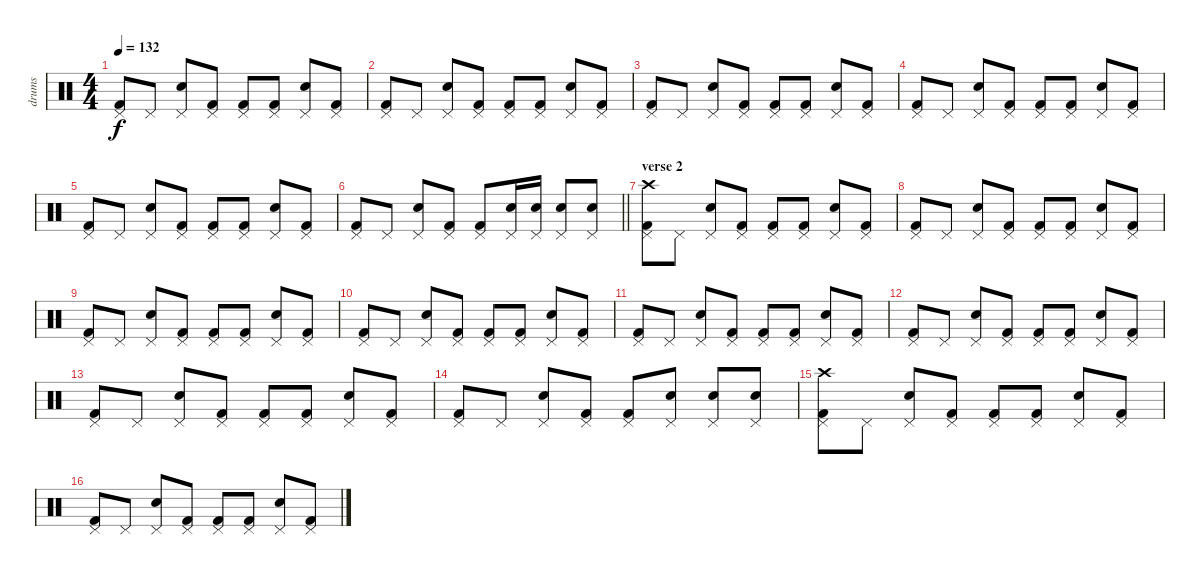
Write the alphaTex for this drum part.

\track ("drums" "drums") {instrument percussion}
\staff {score}
\articulation defaults
\ts (4 4)
\tempo 132
\clef neutral
\ks c
("Kick (hit) 2" "Pedal Hi-Hat (hit)").8{dy f} "Pedal Hi-Hat (hit)".8 ("Electric Snare (hit)" "Pedal Hi-Hat (hit)").8 ("Kick (hit) 2" "Pedal Hi-Hat (hit)").8 ("Kick (hit) 2" "Pedal Hi-Hat (hit)").8 ("Kick (hit) 2" "Pedal Hi-Hat (hit)").8 ("Electric Snare (hit)" "Pedal Hi-Hat (hit)").8 ("Kick (hit) 2" "Pedal Hi-Hat (hit)").8 |
("Kick (hit) 2" "Pedal Hi-Hat (hit)").8 "Pedal Hi-Hat (hit)".8 ("Electric Snare (hit)" "Pedal Hi-Hat (hit)").8 ("Kick (hit) 2" "Pedal Hi-Hat (hit)").8 ("Kick (hit) 2" "Pedal Hi-Hat (hit)").8 ("Kick (hit) 2" "Pedal Hi-Hat (hit)").8 ("Electric Snare (hit)" "Pedal Hi-Hat (hit)").8 ("Kick (hit) 2" "Pedal Hi-Hat (hit)").8 |
("Kick (hit) 2" "Pedal Hi-Hat (hit)").8 "Pedal Hi-Hat (hit)".8 ("Electric Snare (hit)" "Pedal Hi-Hat (hit)").8 ("Kick (hit) 2" "Pedal Hi-Hat (hit)").8 ("Kick (hit) 2" "Pedal Hi-Hat (hit)").8 ("Kick (hit) 2" "Pedal Hi-Hat (hit)").8 ("Electric Snare (hit)" "Pedal Hi-Hat (hit)").8 ("Kick (hit) 2" "Pedal Hi-Hat (hit)").8 |
("Kick (hit) 2" "Pedal Hi-Hat (hit)").8 "Pedal Hi-Hat (hit)".8 ("Electric Snare (hit)" "Pedal Hi-Hat (hit)").8 ("Kick (hit) 2" "Pedal Hi-Hat (hit)").8 ("Kick (hit) 2" "Pedal Hi-Hat (hit)").8 ("Kick (hit) 2" "Pedal Hi-Hat (hit)").8 ("Electric Snare (hit)" "Pedal Hi-Hat (hit)").8 ("Kick (hit) 2" "Pedal Hi-Hat (hit)").8 |
("Kick (hit) 2" "Pedal Hi-Hat (hit)").8 "Pedal Hi-Hat (hit)".8 ("Electric Snare (hit)" "Pedal Hi-Hat (hit)").8 ("Kick (hit) 2" "Pedal Hi-Hat (hit)").8 ("Kick (hit) 2" "Pedal Hi-Hat (hit)").8 ("Kick (hit) 2" "Pedal Hi-Hat (hit)").8 ("Electric Snare (hit)" "Pedal Hi-Hat (hit)").8 ("Kick (hit) 2" "Pedal Hi-Hat (hit)").8 |
\barLineRight lightlight
("Kick (hit) 2" "Pedal Hi-Hat (hit)").8 "Pedal Hi-Hat (hit)".8 ("Electric Snare (hit)" "Pedal Hi-Hat (hit)").8 ("Kick (hit) 2" "Pedal Hi-Hat (hit)").8 ("Kick (hit) 2" "Pedal Hi-Hat (hit)").8 ("Electric Snare (hit)" "Pedal Hi-Hat (hit)").16 ("Electric Snare (hit)" "Pedal Hi-Hat (hit)").16 ("Electric Snare (hit)" "Pedal Hi-Hat (hit)").8 ("Electric Snare (hit)" "Pedal Hi-Hat (hit)").8 |
\section ("" "verse 2")
("Kick (hit) 2" "Pedal Hi-Hat (hit)" "Crash high (hit)").8 "Pedal Hi-Hat (hit)".8 ("Electric Snare (hit)" "Pedal Hi-Hat (hit)").8 ("Kick (hit) 2" "Pedal Hi-Hat (hit)").8 ("Kick (hit) 2" "Pedal Hi-Hat (hit)").8 ("Kick (hit) 2" "Pedal Hi-Hat (hit)").8 ("Electric Snare (hit)" "Pedal Hi-Hat (hit)").8 ("Kick (hit) 2" "Pedal Hi-Hat (hit)").8 |
("Kick (hit) 2" "Pedal Hi-Hat (hit)").8 "Pedal Hi-Hat (hit)".8 ("Electric Snare (hit)" "Pedal Hi-Hat (hit)").8 ("Kick (hit) 2" "Pedal Hi-Hat (hit)").8 ("Kick (hit) 2" "Pedal Hi-Hat (hit)").8 ("Kick (hit) 2" "Pedal Hi-Hat (hit)").8 ("Electric Snare (hit)" "Pedal Hi-Hat (hit)").8 ("Kick (hit) 2" "Pedal Hi-Hat (hit)").8 |
("Kick (hit) 2" "Pedal Hi-Hat (hit)").8 "Pedal Hi-Hat (hit)".8 ("Electric Snare (hit)" "Pedal Hi-Hat (hit)").8 ("Kick (hit) 2" "Pedal Hi-Hat (hit)").8 ("Kick (hit) 2" "Pedal Hi-Hat (hit)").8 ("Kick (hit) 2" "Pedal Hi-Hat (hit)").8 ("Electric Snare (hit)" "Pedal Hi-Hat (hit)").8 ("Kick (hit) 2" "Pedal Hi-Hat (hit)").8 |
("Kick (hit) 2" "Pedal Hi-Hat (hit)").8 "Pedal Hi-Hat (hit)".8 ("Electric Snare (hit)" "Pedal Hi-Hat (hit)").8 ("Kick (hit) 2" "Pedal Hi-Hat (hit)").8 ("Kick (hit) 2" "Pedal Hi-Hat (hit)").8 ("Kick (hit) 2" "Pedal Hi-Hat (hit)").8 ("Electric Snare (hit)" "Pedal Hi-Hat (hit)").8 ("Kick (hit) 2" "Pedal Hi-Hat (hit)").8 |
("Kick (hit) 2" "Pedal Hi-Hat (hit)").8 "Pedal Hi-Hat (hit)".8 ("Electric Snare (hit)" "Pedal Hi-Hat (hit)").8 ("Kick (hit) 2" "Pedal Hi-Hat (hit)").8 ("Kick (hit) 2" "Pedal Hi-Hat (hit)").8 ("Kick (hit) 2" "Pedal Hi-Hat (hit)").8 ("Electric Snare (hit)" "Pedal Hi-Hat (hit)").8 ("Kick (hit) 2" "Pedal Hi-Hat (hit)").8 |
("Kick (hit) 2" "Pedal Hi-Hat (hit)").8 "Pedal Hi-Hat (hit)".8 ("Electric Snare (hit)" "Pedal Hi-Hat (hit)").8 ("Kick (hit) 2" "Pedal Hi-Hat (hit)").8 ("Kick (hit) 2" "Pedal Hi-Hat (hit)").8 ("Kick (hit) 2" "Pedal Hi-Hat (hit)").8 ("Electric Snare (hit)" "Pedal Hi-Hat (hit)").8 ("Kick (hit) 2" "Pedal Hi-Hat (hit)").8 |
("Kick (hit) 2" "Pedal Hi-Hat (hit)").8 "Pedal Hi-Hat (hit)".8 ("Electric Snare (hit)" "Pedal Hi-Hat (hit)").8 ("Kick (hit) 2" "Pedal Hi-Hat (hit)").8 ("Kick (hit) 2" "Pedal Hi-Hat (hit)").8 ("Kick (hit) 2" "Pedal Hi-Hat (hit)").8 ("Electric Snare (hit)" "Pedal Hi-Hat (hit)").8 ("Kick (hit) 2" "Pedal Hi-Hat (hit)").8 |
("Kick (hit) 2" "Pedal Hi-Hat (hit)").8 "Pedal Hi-Hat (hit)".8 ("Electric Snare (hit)" "Pedal Hi-Hat (hit)").8 ("Kick (hit) 2" "Pedal Hi-Hat (hit)").8 ("Kick (hit) 2" "Pedal Hi-Hat (hit)").8 ("Electric Snare (hit)" "Pedal Hi-Hat (hit)").8 ("Electric Snare (hit)" "Pedal Hi-Hat (hit)").8 ("Electric Snare (hit)" "Pedal Hi-Hat (hit)").8 |
("Kick (hit) 2" "Pedal Hi-Hat (hit)" "Crash high (hit)").8 "Pedal Hi-Hat (hit)".8 ("Electric Snare (hit)" "Pedal Hi-Hat (hit)").8 ("Kick (hit) 2" "Pedal Hi-Hat (hit)").8 ("Kick (hit) 2" "Pedal Hi-Hat (hit)").8 ("Kick (hit) 2" "Pedal Hi-Hat (hit)").8 ("Electric Snare (hit)" "Pedal Hi-Hat (hit)").8 ("Kick (hit) 2" "Pedal Hi-Hat (hit)").8 |
("Kick (hit) 2" "Pedal Hi-Hat (hit)").8 "Pedal Hi-Hat (hit)".8 ("Electric Snare (hit)" "Pedal Hi-Hat (hit)").8 ("Kick (hit) 2" "Pedal Hi-Hat (hit)").8 ("Kick (hit) 2" "Pedal Hi-Hat (hit)").8 ("Kick (hit) 2" "Pedal Hi-Hat (hit)").8 ("Electric Snare (hit)" "Pedal Hi-Hat (hit)").8 ("Kick (hit) 2" "Pedal Hi-Hat (hit)").8
